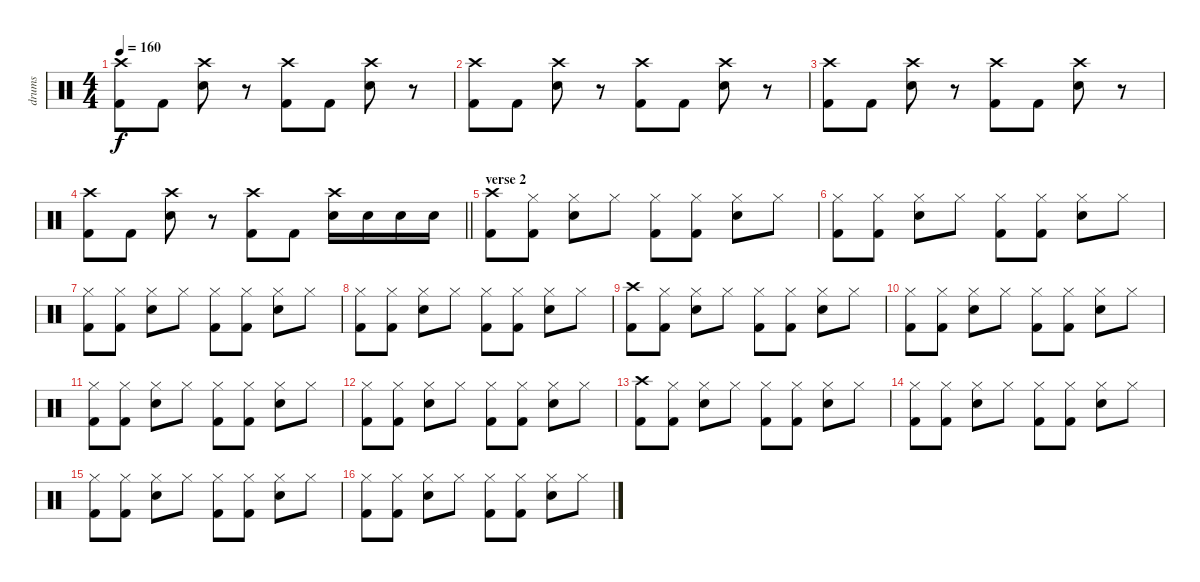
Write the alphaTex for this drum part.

\track ("drums" "drums") {instrument percussion}
\staff {score}
\articulation defaults
\ts (4 4)
\tempo 160
\clef neutral
\ks c
("Crash high (hit)" "Kick (hit) 2").8{dy f} "Kick (hit) 2".8 ("Crash high (hit)" "Electric Snare (hit)").8 r.8 ("Crash high (hit)" "Kick (hit) 2").8 "Kick (hit) 2".8 ("Crash high (hit)" "Electric Snare (hit)").8 r.8 |
("Crash high (hit)" "Kick (hit) 2").8 "Kick (hit) 2".8 ("Crash high (hit)" "Electric Snare (hit)").8 r.8 ("Crash high (hit)" "Kick (hit) 2").8 "Kick (hit) 2".8 ("Crash high (hit)" "Electric Snare (hit)").8 r.8 |
("Crash high (hit)" "Kick (hit) 2").8 "Kick (hit) 2".8 ("Crash high (hit)" "Electric Snare (hit)").8 r.8 ("Crash high (hit)" "Kick (hit) 2").8 "Kick (hit) 2".8 ("Crash high (hit)" "Electric Snare (hit)").8 r.8 |
\barLineRight lightlight
("Crash high (hit)" "Kick (hit) 2").8 "Kick (hit) 2".8 ("Crash high (hit)" "Electric Snare (hit)").8 r.8 ("Crash high (hit)" "Kick (hit) 2").8 "Kick (hit) 2".8 ("Crash high (hit)" "Electric Snare (hit)").16 "Electric Snare (hit)".16 "Electric Snare (hit)".16 "Electric Snare (hit)".16 |
\section ("" "verse 2")
("Crash high (hit)" "Kick (hit) 2").8 ("Hi-Hat (closed)" "Kick (hit) 2").8 ("Hi-Hat (closed)" "Electric Snare (hit)").8 "Hi-Hat (closed)".8 ("Hi-Hat (closed)" "Kick (hit) 2").8 ("Hi-Hat (closed)" "Kick (hit) 2").8 ("Hi-Hat (closed)" "Electric Snare (hit)").8 "Hi-Hat (closed)".8 |
("Hi-Hat (closed)" "Kick (hit) 2").8 ("Hi-Hat (closed)" "Kick (hit) 2").8 ("Hi-Hat (closed)" "Electric Snare (hit)").8 "Hi-Hat (closed)".8 ("Hi-Hat (closed)" "Kick (hit) 2").8 ("Hi-Hat (closed)" "Kick (hit) 2").8 ("Hi-Hat (closed)" "Electric Snare (hit)").8 "Hi-Hat (closed)".8 |
("Hi-Hat (closed)" "Kick (hit) 2").8 ("Hi-Hat (closed)" "Kick (hit) 2").8 ("Hi-Hat (closed)" "Electric Snare (hit)").8 "Hi-Hat (closed)".8 ("Hi-Hat (closed)" "Kick (hit) 2").8 ("Hi-Hat (closed)" "Kick (hit) 2").8 ("Hi-Hat (closed)" "Electric Snare (hit)").8 "Hi-Hat (closed)".8 |
("Hi-Hat (closed)" "Kick (hit) 2").8 ("Hi-Hat (closed)" "Kick (hit) 2").8 ("Hi-Hat (closed)" "Electric Snare (hit)").8 "Hi-Hat (closed)".8 ("Hi-Hat (closed)" "Kick (hit) 2").8 ("Hi-Hat (closed)" "Kick (hit) 2").8 ("Hi-Hat (closed)" "Electric Snare (hit)").8 "Hi-Hat (closed)".8 |
("Crash high (hit)" "Kick (hit) 2").8 ("Hi-Hat (closed)" "Kick (hit) 2").8 ("Hi-Hat (closed)" "Electric Snare (hit)").8 "Hi-Hat (closed)".8 ("Hi-Hat (closed)" "Kick (hit) 2").8 ("Hi-Hat (closed)" "Kick (hit) 2").8 ("Hi-Hat (closed)" "Electric Snare (hit)").8 "Hi-Hat (closed)".8 |
("Hi-Hat (closed)" "Kick (hit) 2").8 ("Hi-Hat (closed)" "Kick (hit) 2").8 ("Hi-Hat (closed)" "Electric Snare (hit)").8 "Hi-Hat (closed)".8 ("Hi-Hat (closed)" "Kick (hit) 2").8 ("Hi-Hat (closed)" "Kick (hit) 2").8 ("Hi-Hat (closed)" "Electric Snare (hit)").8 "Hi-Hat (closed)".8 |
("Hi-Hat (closed)" "Kick (hit) 2").8 ("Hi-Hat (closed)" "Kick (hit) 2").8 ("Hi-Hat (closed)" "Electric Snare (hit)").8 "Hi-Hat (closed)".8 ("Hi-Hat (closed)" "Kick (hit) 2").8 ("Hi-Hat (closed)" "Kick (hit) 2").8 ("Hi-Hat (closed)" "Electric Snare (hit)").8 "Hi-Hat (closed)".8 |
("Hi-Hat (closed)" "Kick (hit) 2").8 ("Hi-Hat (closed)" "Kick (hit) 2").8 ("Hi-Hat (closed)" "Electric Snare (hit)").8 "Hi-Hat (closed)".8 ("Hi-Hat (closed)" "Kick (hit) 2").8 ("Hi-Hat (closed)" "Kick (hit) 2").8 ("Hi-Hat (closed)" "Electric Snare (hit)").8 "Hi-Hat (closed)".8 |
("Crash high (hit)" "Kick (hit) 2").8 ("Hi-Hat (closed)" "Kick (hit) 2").8 ("Hi-Hat (closed)" "Electric Snare (hit)").8 "Hi-Hat (closed)".8 ("Hi-Hat (closed)" "Kick (hit) 2").8 ("Hi-Hat (closed)" "Kick (hit) 2").8 ("Hi-Hat (closed)" "Electric Snare (hit)").8 "Hi-Hat (closed)".8 |
("Hi-Hat (closed)" "Kick (hit) 2").8 ("Hi-Hat (closed)" "Kick (hit) 2").8 ("Hi-Hat (closed)" "Electric Snare (hit)").8 "Hi-Hat (closed)".8 ("Hi-Hat (closed)" "Kick (hit) 2").8 ("Hi-Hat (closed)" "Kick (hit) 2").8 ("Hi-Hat (closed)" "Electric Snare (hit)").8 "Hi-Hat (closed)".8 |
("Hi-Hat (closed)" "Kick (hit) 2").8 ("Hi-Hat (closed)" "Kick (hit) 2").8 ("Hi-Hat (closed)" "Electric Snare (hit)").8 "Hi-Hat (closed)".8 ("Hi-Hat (closed)" "Kick (hit) 2").8 ("Hi-Hat (closed)" "Kick (hit) 2").8 ("Hi-Hat (closed)" "Electric Snare (hit)").8 "Hi-Hat (closed)".8 |
("Hi-Hat (closed)" "Kick (hit) 2").8 ("Hi-Hat (closed)" "Kick (hit) 2").8 ("Hi-Hat (closed)" "Electric Snare (hit)").8 "Hi-Hat (closed)".8 ("Hi-Hat (closed)" "Kick (hit) 2").8 ("Hi-Hat (closed)" "Kick (hit) 2").8 ("Hi-Hat (closed)" "Electric Snare (hit)").8 "Hi-Hat (closed)".8
